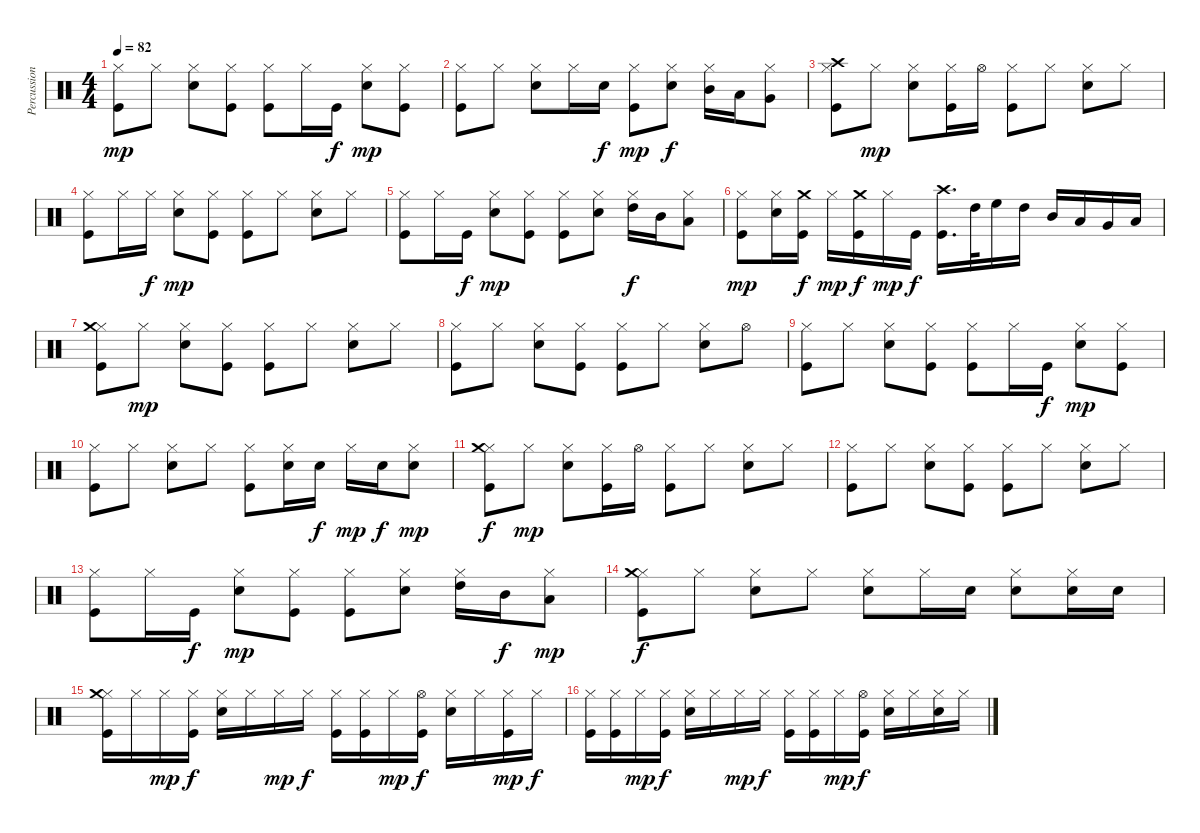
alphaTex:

\track ("Percussion" "Percussion") {instrument percussion}
\staff {score}
\articulation defaults
\ts (4 4)
\tempo 82
\clef neutral
\ks c
("Kick (hit)" "Hi-Hat (closed)").8{dy mp} "Hi-Hat (closed)".8 ("Electric Snare (hit)" "Hi-Hat (closed)").8 ("Kick (hit)" "Hi-Hat (closed)").8 ("Kick (hit)" "Hi-Hat (closed)").8 "Hi-Hat (closed)".16 "Kick (hit)".16{dy f} ("Electric Snare (hit)" "Hi-Hat (closed)").8{dy mp} ("Kick (hit)" "Hi-Hat (closed)").8 |
("Kick (hit)" "Hi-Hat (closed)").8 "Hi-Hat (closed)".8 ("Electric Snare (hit)" "Hi-Hat (closed)").8 "Hi-Hat (closed)".16 "Electric Snare (hit)".16{dy f} ("Kick (hit)" "Hi-Hat (closed)").8{dy mp} ("Electric Snare (hit)" "Hi-Hat (closed)").8{dy f} ("Mid Tom (hit)" "Hi-Hat (closed)").16 "Low Tom (hit)".16 ("Very Low Tom (hit)" "Hi-Hat (closed)").8 |
("Kick (hit)" "Hi-Hat (closed)" "Crash high (hit)").8 "Hi-Hat (closed)".8{dy mp} ("Electric Snare (hit)" "Hi-Hat (closed)").8 ("Kick (hit)" "Hi-Hat (closed)").16 "Hi-Hat (open)".16 ("Kick (hit)" "Hi-Hat (closed)").8 "Hi-Hat (closed)".8 ("Electric Snare (hit)" "Hi-Hat (closed)").8 "Hi-Hat (closed)".8 |
("Kick (hit)" "Hi-Hat (closed)").8 "Hi-Hat (closed)".16 "Hi-Hat (closed)".16{dy f} ("Electric Snare (hit)" "Hi-Hat (closed)").8{dy mp} ("Kick (hit)" "Hi-Hat (closed)").8 ("Kick (hit)" "Hi-Hat (closed)").8 "Hi-Hat (closed)".8 ("Electric Snare (hit)" "Hi-Hat (closed)").8 "Hi-Hat (closed)".8 |
("Kick (hit)" "Hi-Hat (closed)").8 "Hi-Hat (closed)".16 "Kick (hit)".16{dy f} ("Electric Snare (hit)" "Hi-Hat (closed)").8{dy mp} ("Kick (hit)" "Hi-Hat (closed)").8 ("Kick (hit)" "Hi-Hat (closed)").8 ("Electric Snare (hit)" "Hi-Hat (closed)").8 ("High Tom (hit)" "Hi-Hat (closed)").16{dy f} "Mid Tom (hit)".16 ("Low Tom (hit)" "Hi-Hat (closed)").8 |
("Kick (hit)" "Hi-Hat (closed)").8{dy mp} ("Electric Snare (hit)" "Hi-Hat (closed)").16 ("Kick (hit)" "Crash medium (hit)").16{dy f} "Hi-Hat (closed)".16{dy mp} ("Kick (hit)" "Crash medium (hit)").16{dy f} "Hi-Hat (closed)".16{dy mp} "Kick (hit)".16{dy f} ("Kick (hit)" "Crash high (hit)").16{d} "High Tom (hit)".32 "High Floor Tom (hit)".16 "High Tom (hit)".16 "Mid Tom (hit)".16 "Low Tom (hit)".16 "Very Low Tom (hit)".16 "Low Floor Tom (hit)".16 |
("Kick (hit)" "Hi-Hat (closed)" "Crash medium (hit)").8 "Hi-Hat (closed)".8{dy mp} ("Electric Snare (hit)" "Hi-Hat (closed)").8 ("Kick (hit)" "Hi-Hat (closed)").8 ("Kick (hit)" "Hi-Hat (closed)").8 "Hi-Hat (closed)".8 ("Electric Snare (hit)" "Hi-Hat (closed)").8 "Hi-Hat (closed)".8 |
("Kick (hit)" "Hi-Hat (closed)").8 "Hi-Hat (closed)".8 ("Electric Snare (hit)" "Hi-Hat (closed)").8 ("Kick (hit)" "Hi-Hat (closed)").8 ("Kick (hit)" "Hi-Hat (closed)").8 "Hi-Hat (closed)".8 ("Electric Snare (hit)" "Hi-Hat (closed)").8 "Hi-Hat (open)".8 |
("Kick (hit)" "Hi-Hat (closed)").8 "Hi-Hat (closed)".8 ("Electric Snare (hit)" "Hi-Hat (closed)").8 ("Kick (hit)" "Hi-Hat (closed)").8 ("Kick (hit)" "Hi-Hat (closed)").8 "Hi-Hat (closed)".16 "Kick (hit)".16{dy f} ("Electric Snare (hit)" "Hi-Hat (closed)").8{dy mp} ("Kick (hit)" "Hi-Hat (closed)").8 |
("Kick (hit)" "Hi-Hat (closed)").8 "Hi-Hat (closed)".8 ("Electric Snare (hit)" "Hi-Hat (closed)").8 "Hi-Hat (closed)".8 ("Kick (hit)" "Hi-Hat (closed)").8 ("Electric Snare (hit)" "Hi-Hat (closed)").16 "Electric Snare (hit)".16{dy f} "Hi-Hat (closed)".16{dy mp} "Electric Snare (hit)".16{dy f} ("Electric Snare (hit)" "Hi-Hat (closed)").8{dy mp} |
("Kick (hit)" "Hi-Hat (closed)" "Crash medium (hit)").8{dy f} "Hi-Hat (closed)".8{dy mp} ("Electric Snare (hit)" "Hi-Hat (closed)").8 ("Kick (hit)" "Hi-Hat (closed)").16 "Hi-Hat (open)".16 ("Kick (hit)" "Hi-Hat (closed)").8 "Hi-Hat (closed)".8 ("Electric Snare (hit)" "Hi-Hat (closed)").8 "Hi-Hat (closed)".8 |
("Kick (hit)" "Hi-Hat (closed)").8 "Hi-Hat (closed)".8 ("Electric Snare (hit)" "Hi-Hat (closed)").8 ("Kick (hit)" "Hi-Hat (closed)").8 ("Kick (hit)" "Hi-Hat (closed)").8 "Hi-Hat (closed)".8 ("Electric Snare (hit)" "Hi-Hat (closed)").8 "Hi-Hat (closed)".8 |
("Kick (hit)" "Hi-Hat (closed)").8 "Hi-Hat (closed)".16 "Kick (hit)".16{dy f} ("Electric Snare (hit)" "Hi-Hat (closed)").8{dy mp} ("Kick (hit)" "Hi-Hat (closed)").8 ("Kick (hit)" "Hi-Hat (closed)").8 ("Electric Snare (hit)" "Hi-Hat (closed)").8 ("High Tom (hit)" "Hi-Hat (closed)").16 "Mid Tom (hit)".16{dy f} ("Low Tom (hit)" "Hi-Hat (closed)").8{dy mp} |
("Kick (hit)" "Hi-Hat (closed)" "Crash medium (hit)").8{dy f} "Hi-Hat (closed)".8 ("Electric Snare (hit)" "Hi-Hat (closed)").8 "Hi-Hat (closed)".8 ("Electric Snare (hit)" "Hi-Hat (closed)").8 "Hi-Hat (closed)".16 "Electric Snare (hit)".16 ("Electric Snare (hit)" "Hi-Hat (closed)").8 ("Electric Snare (hit)" "Hi-Hat (closed)").16 "Electric Snare (hit)".16 |
("Kick (hit)" "Hi-Hat (closed)" "Crash medium (hit)").16 "Hi-Hat (closed)".16 "Hi-Hat (closed)".16{dy mp} ("Kick (hit)" "Hi-Hat (closed)").16{dy f} ("Electric Snare (hit)" "Hi-Hat (closed)").16 "Hi-Hat (closed)".16 "Hi-Hat (closed)".16{dy mp} "Hi-Hat (closed)".16{dy f} ("Kick (hit)" "Hi-Hat (closed)").16 ("Kick (hit)" "Hi-Hat (closed)").16 "Hi-Hat (closed)".16{dy mp} ("Kick (hit)" "Hi-Hat (open)").16{dy f} ("Electric Snare (hit)" "Hi-Hat (closed)").16 "Hi-Hat (closed)".16 ("Kick (hit)" "Hi-Hat (closed)").16{dy mp} "Hi-Hat (closed)".16{dy f} |
("Kick (hit)" "Hi-Hat (closed)").16 ("Kick (hit)" "Hi-Hat (closed)").16 "Hi-Hat (closed)".16{dy mp} ("Kick (hit)" "Hi-Hat (closed)").16{dy f} ("Electric Snare (hit)" "Hi-Hat (closed)").16 "Hi-Hat (closed)".16 "Hi-Hat (closed)".16{dy mp} "Hi-Hat (closed)".16{dy f} ("Kick (hit)" "Hi-Hat (closed)").16 ("Kick (hit)" "Hi-Hat (closed)").16 "Hi-Hat (closed)".16{dy mp} ("Kick (hit)" "Hi-Hat (open)").16{dy f} ("Electric Snare (hit)" "Hi-Hat (closed)").16 "Hi-Hat (closed)".16 ("Electric Snare (hit)" "Hi-Hat (closed)").16 "Hi-Hat (closed)".16
